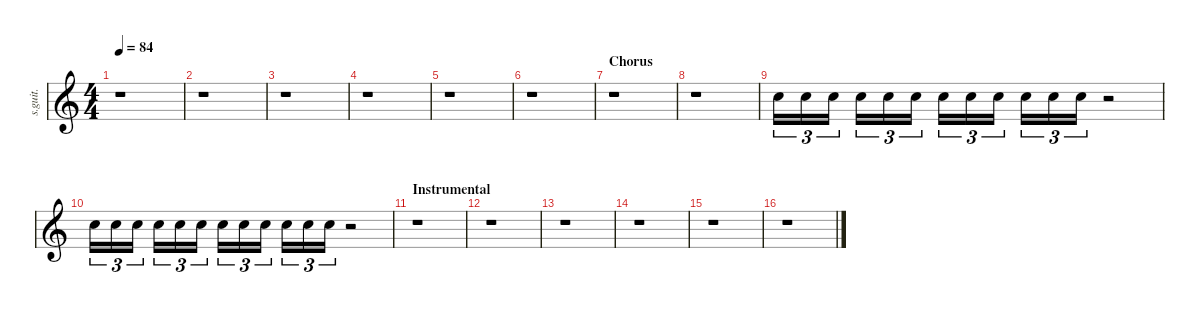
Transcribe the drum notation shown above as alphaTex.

\defaultSystemsLayout 4
\hideDynamics
\bracketExtendMode nobrackets
\track ("RIngo Starr - Hand Claps" "s.guit.") {instrument percussion}
\staff {score}
\articulation defaults
\ts (4 4)
\tempo 84
\clef g2
\ks c
r.1{dy pp} |
r.1 |
r.1 |
r.1 |
r.1 |
r.1 |
\section ("" "Chorus")
r.1 |
r.1 |
"Hand Clap (hit)".16{tu (3 2) lyrics (0 "") lyrics (1 "") lyrics (2 "") lyrics (3 "") lyrics (4 "") dy mf} "Hand Clap (hit)".16{tu (3 2) lyrics (0 "") lyrics (1 "") lyrics (2 "") lyrics (3 "") lyrics (4 "")} "Hand Clap (hit)".16{tu (3 2) lyrics (0 "") lyrics (1 "") lyrics (2 "") lyrics (3 "") lyrics (4 "")} "Hand Clap (hit)".16{tu (3 2) lyrics (0 "") lyrics (1 "") lyrics (2 "") lyrics (3 "") lyrics (4 "") dy mp} "Hand Clap (hit)".16{tu (3 2) lyrics (0 "") lyrics (1 "") lyrics (2 "") lyrics (3 "") lyrics (4 "")} "Hand Clap (hit)".16{tu (3 2) lyrics (0 "") lyrics (1 "") lyrics (2 "") lyrics (3 "") lyrics (4 "")} "Hand Clap (hit)".16{tu (3 2) lyrics (0 "") lyrics (1 "") lyrics (2 "") lyrics (3 "") lyrics (4 "") dy p} "Hand Clap (hit)".16{tu (3 2) lyrics (0 "") lyrics (1 "") lyrics (2 "") lyrics (3 "") lyrics (4 "")} "Hand Clap (hit)".16{tu (3 2) lyrics (0 "") lyrics (1 "") lyrics (2 "") lyrics (3 "") lyrics (4 "")} "Hand Clap (hit)".16{tu (3 2) lyrics (0 "") lyrics (1 "") lyrics (2 "") lyrics (3 "") lyrics (4 "") dy pp} "Hand Clap (hit)".16{tu (3 2) lyrics (0 "") lyrics (1 "") lyrics (2 "") lyrics (3 "") lyrics (4 "")} "Hand Clap (hit)".16{tu (3 2) lyrics (0 "") lyrics (1 "") lyrics (2 "") lyrics (3 "") lyrics (4 "")} r.2 |
"Hand Clap (hit)".16{tu (3 2) lyrics (0 "") lyrics (1 "") lyrics (2 "") lyrics (3 "") lyrics (4 "") dy mf} "Hand Clap (hit)".16{tu (3 2) lyrics (0 "") lyrics (1 "") lyrics (2 "") lyrics (3 "") lyrics (4 "")} "Hand Clap (hit)".16{tu (3 2) lyrics (0 "") lyrics (1 "") lyrics (2 "") lyrics (3 "") lyrics (4 "")} "Hand Clap (hit)".16{tu (3 2) lyrics (0 "") lyrics (1 "") lyrics (2 "") lyrics (3 "") lyrics (4 "") dy mp} "Hand Clap (hit)".16{tu (3 2) lyrics (0 "") lyrics (1 "") lyrics (2 "") lyrics (3 "") lyrics (4 "")} "Hand Clap (hit)".16{tu (3 2) lyrics (0 "") lyrics (1 "") lyrics (2 "") lyrics (3 "") lyrics (4 "")} "Hand Clap (hit)".16{tu (3 2) lyrics (0 "") lyrics (1 "") lyrics (2 "") lyrics (3 "") lyrics (4 "") dy p} "Hand Clap (hit)".16{tu (3 2) lyrics (0 "") lyrics (1 "") lyrics (2 "") lyrics (3 "") lyrics (4 "")} "Hand Clap (hit)".16{tu (3 2) lyrics (0 "") lyrics (1 "") lyrics (2 "") lyrics (3 "") lyrics (4 "")} "Hand Clap (hit)".16{tu (3 2) lyrics (0 "") lyrics (1 "") lyrics (2 "") lyrics (3 "") lyrics (4 "") dy pp} "Hand Clap (hit)".16{tu (3 2) lyrics (0 "") lyrics (1 "") lyrics (2 "") lyrics (3 "") lyrics (4 "")} "Hand Clap (hit)".16{tu (3 2) lyrics (0 "") lyrics (1 "") lyrics (2 "") lyrics (3 "") lyrics (4 "")} r.2 |
\section ("" "Instrumental")
r.1 |
r.1 |
r.1 |
r.1 |
r.1 |
r.1
